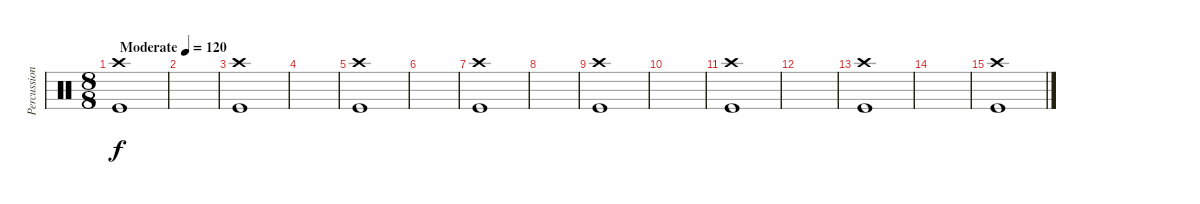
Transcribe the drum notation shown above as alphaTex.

\track ("Percussion" "Percussion") {instrument percussion}
\staff {score}
\articulation defaults
\ts (8 8)
\tempo (120 "Moderate")
\clef neutral
\ks c
("Crash high (hit)" "Kick (hit)").1{dy f} |
|
("Crash high (hit)" "Kick (hit)").1 |
|
("Crash high (hit)" "Kick (hit)").1 |
|
("Crash high (hit)" "Kick (hit)").1 |
|
("Crash high (hit)" "Kick (hit)").1 |
|
("Crash high (hit)" "Kick (hit)").1 |
|
("Crash high (hit)" "Kick (hit)").1 |
|
("Crash high (hit)" "Kick (hit)").1
